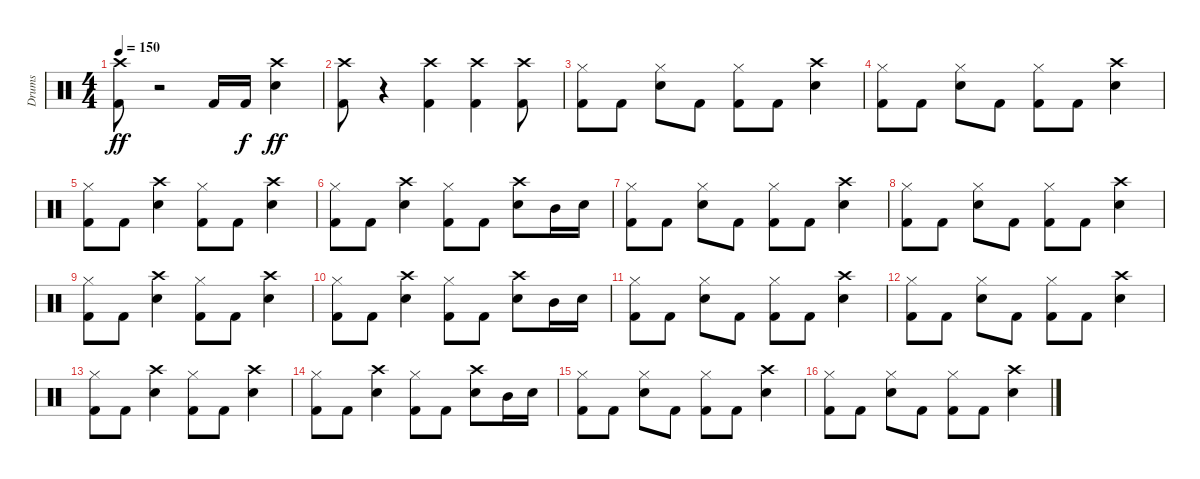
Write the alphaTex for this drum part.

\track ("Drums" "Drums") {instrument percussion}
\staff {score}
\articulation defaults
\ts (4 4)
\tempo 150
\clef neutral
\ks c
("Crash high (hit)" "Kick (hit) 2").8{dy ff} r.2 "Kick (hit) 2".16 "Kick (hit) 2".16{dy f} ("Snare (hit) 2" "Crash high (hit)").4{dy ff} |
("Crash high (hit)" "Kick (hit) 2").8 r.4 ("Kick (hit) 2" "Crash high (hit)").4 ("Kick (hit) 2" "Crash high (hit)").4 ("Kick (hit) 2" "Crash high (hit)").8 |
("Hi-Hat (closed)" "Kick (hit) 2").8 "Kick (hit) 2".8 ("Hi-Hat (closed)" "Snare (hit) 2").8 "Kick (hit) 2".8 ("Hi-Hat (closed)" "Kick (hit) 2").8 "Kick (hit) 2".8 ("Crash high (hit)" "Snare (hit) 2").4 |
("Hi-Hat (closed)" "Kick (hit) 2").8 "Kick (hit) 2".8 ("Hi-Hat (closed)" "Snare (hit) 2").8 "Kick (hit) 2".8 ("Hi-Hat (closed)" "Kick (hit) 2").8 "Kick (hit) 2".8 ("Crash high (hit)" "Snare (hit) 2").4 |
("Hi-Hat (closed)" "Kick (hit) 2").8 "Kick (hit) 2".8 ("Crash high (hit)" "Snare (hit) 2").4 ("Hi-Hat (closed)" "Kick (hit) 2").8 "Kick (hit) 2".8 ("Crash high (hit)" "Snare (hit) 2").4 |
("Hi-Hat (closed)" "Kick (hit) 2").8 "Kick (hit) 2".8 ("Crash high (hit)" "Snare (hit) 2").4 ("Hi-Hat (closed)" "Kick (hit) 2").8 "Kick (hit) 2".8 ("Crash high (hit)" "Snare (hit) 2").8 "Mid Tom (hit)".16 "Snare (hit) 2".16 |
("Hi-Hat (closed)" "Kick (hit) 2").8 "Kick (hit) 2".8 ("Hi-Hat (closed)" "Snare (hit) 2").8 "Kick (hit) 2".8 ("Hi-Hat (closed)" "Kick (hit) 2").8 "Kick (hit) 2".8 ("Crash high (hit)" "Snare (hit) 2").4 |
("Hi-Hat (closed)" "Kick (hit) 2").8 "Kick (hit) 2".8 ("Hi-Hat (closed)" "Snare (hit) 2").8 "Kick (hit) 2".8 ("Hi-Hat (closed)" "Kick (hit) 2").8 "Kick (hit) 2".8 ("Crash high (hit)" "Snare (hit) 2").4 |
("Hi-Hat (closed)" "Kick (hit) 2").8 "Kick (hit) 2".8 ("Crash high (hit)" "Snare (hit) 2").4 ("Hi-Hat (closed)" "Kick (hit) 2").8 "Kick (hit) 2".8 ("Crash high (hit)" "Snare (hit) 2").4 |
("Hi-Hat (closed)" "Kick (hit) 2").8 "Kick (hit) 2".8 ("Crash high (hit)" "Snare (hit) 2").4 ("Hi-Hat (closed)" "Kick (hit) 2").8 "Kick (hit) 2".8 ("Crash high (hit)" "Snare (hit) 2").8 "Mid Tom (hit)".16 "Snare (hit) 2".16 |
("Hi-Hat (closed)" "Kick (hit) 2").8 "Kick (hit) 2".8 ("Hi-Hat (closed)" "Snare (hit) 2").8 "Kick (hit) 2".8 ("Hi-Hat (closed)" "Kick (hit) 2").8 "Kick (hit) 2".8 ("Crash high (hit)" "Snare (hit) 2").4 |
("Hi-Hat (closed)" "Kick (hit) 2").8 "Kick (hit) 2".8 ("Hi-Hat (closed)" "Snare (hit) 2").8 "Kick (hit) 2".8 ("Hi-Hat (closed)" "Kick (hit) 2").8 "Kick (hit) 2".8 ("Crash high (hit)" "Snare (hit) 2").4 |
("Hi-Hat (closed)" "Kick (hit) 2").8 "Kick (hit) 2".8 ("Crash high (hit)" "Snare (hit) 2").4 ("Hi-Hat (closed)" "Kick (hit) 2").8 "Kick (hit) 2".8 ("Crash high (hit)" "Snare (hit) 2").4 |
("Hi-Hat (closed)" "Kick (hit) 2").8 "Kick (hit) 2".8 ("Crash high (hit)" "Snare (hit) 2").4 ("Hi-Hat (closed)" "Kick (hit) 2").8 "Kick (hit) 2".8 ("Crash high (hit)" "Snare (hit) 2").8 "Mid Tom (hit)".16 "Snare (hit) 2".16 |
("Hi-Hat (closed)" "Kick (hit) 2").8 "Kick (hit) 2".8 ("Hi-Hat (closed)" "Snare (hit) 2").8 "Kick (hit) 2".8 ("Hi-Hat (closed)" "Kick (hit) 2").8 "Kick (hit) 2".8 ("Crash high (hit)" "Snare (hit) 2").4 |
("Hi-Hat (closed)" "Kick (hit) 2").8 "Kick (hit) 2".8 ("Hi-Hat (closed)" "Snare (hit) 2").8 "Kick (hit) 2".8 ("Hi-Hat (closed)" "Kick (hit) 2").8 "Kick (hit) 2".8 ("Crash high (hit)" "Snare (hit) 2").4
